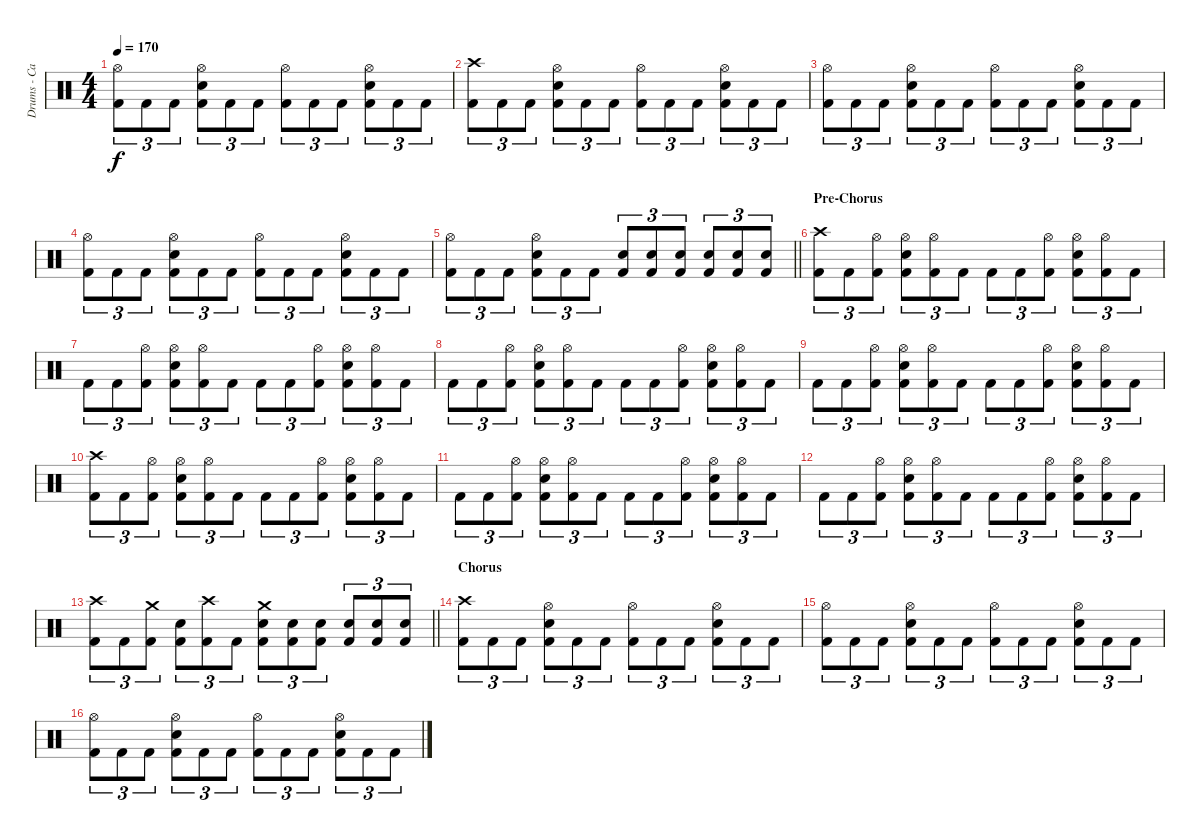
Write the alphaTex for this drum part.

\track ("Drums - Casey Grillo" "Drums - Ca") {instrument percussion}
\staff {score}
\articulation defaults
\ts (4 4)
\tempo 170
\clef neutral
\ks c
("Hi-Hat (open)" "Kick (hit) 2").8{tu (3 2) dy f} "Kick (hit) 2".8{tu (3 2)} "Kick (hit) 2".8{tu (3 2)} ("Hi-Hat (open)" "Snare (hit) 2" "Kick (hit) 2").8{tu (3 2)} "Kick (hit) 2".8{tu (3 2)} "Kick (hit) 2".8{tu (3 2)} ("Hi-Hat (open)" "Kick (hit) 2").8{tu (3 2)} "Kick (hit) 2".8{tu (3 2)} "Kick (hit) 2".8{tu (3 2)} ("Hi-Hat (open)" "Snare (hit) 2" "Kick (hit) 2").8{tu (3 2)} "Kick (hit) 2".8{tu (3 2)} "Kick (hit) 2".8{tu (3 2)} |
("Crash high (hit)" "Kick (hit) 2").8{tu (3 2)} "Kick (hit) 2".8{tu (3 2)} "Kick (hit) 2".8{tu (3 2)} ("Hi-Hat (open)" "Snare (hit) 2" "Kick (hit) 2").8{tu (3 2)} "Kick (hit) 2".8{tu (3 2)} "Kick (hit) 2".8{tu (3 2)} ("Hi-Hat (open)" "Kick (hit) 2").8{tu (3 2)} "Kick (hit) 2".8{tu (3 2)} "Kick (hit) 2".8{tu (3 2)} ("Hi-Hat (open)" "Snare (hit) 2" "Kick (hit) 2").8{tu (3 2)} "Kick (hit) 2".8{tu (3 2)} "Kick (hit) 2".8{tu (3 2)} |
("Hi-Hat (open)" "Kick (hit) 2").8{tu (3 2)} "Kick (hit) 2".8{tu (3 2)} "Kick (hit) 2".8{tu (3 2)} ("Hi-Hat (open)" "Snare (hit) 2" "Kick (hit) 2").8{tu (3 2)} "Kick (hit) 2".8{tu (3 2)} "Kick (hit) 2".8{tu (3 2)} ("Hi-Hat (open)" "Kick (hit) 2").8{tu (3 2)} "Kick (hit) 2".8{tu (3 2)} "Kick (hit) 2".8{tu (3 2)} ("Hi-Hat (open)" "Snare (hit) 2" "Kick (hit) 2").8{tu (3 2)} "Kick (hit) 2".8{tu (3 2)} "Kick (hit) 2".8{tu (3 2)} |
("Hi-Hat (open)" "Kick (hit) 2").8{tu (3 2)} "Kick (hit) 2".8{tu (3 2)} "Kick (hit) 2".8{tu (3 2)} ("Hi-Hat (open)" "Snare (hit) 2" "Kick (hit) 2").8{tu (3 2)} "Kick (hit) 2".8{tu (3 2)} "Kick (hit) 2".8{tu (3 2)} ("Hi-Hat (open)" "Kick (hit) 2").8{tu (3 2)} "Kick (hit) 2".8{tu (3 2)} "Kick (hit) 2".8{tu (3 2)} ("Hi-Hat (open)" "Snare (hit) 2" "Kick (hit) 2").8{tu (3 2)} "Kick (hit) 2".8{tu (3 2)} "Kick (hit) 2".8{tu (3 2)} |
\barLineRight lightlight
("Hi-Hat (open)" "Kick (hit) 2").8{tu (3 2)} "Kick (hit) 2".8{tu (3 2)} "Kick (hit) 2".8{tu (3 2)} ("Hi-Hat (open)" "Snare (hit) 2" "Kick (hit) 2").8{tu (3 2)} "Kick (hit) 2".8{tu (3 2)} "Kick (hit) 2".8{tu (3 2)} ("Snare (hit) 2" "Kick (hit) 2").8{tu (3 2)} ("Snare (hit) 2" "Kick (hit) 2").8{tu (3 2)} ("Snare (hit) 2" "Kick (hit) 2").8{tu (3 2)} ("Snare (hit) 2" "Kick (hit) 2").8{tu (3 2)} ("Snare (hit) 2" "Kick (hit) 2").8{tu (3 2)} ("Snare (hit) 2" "Kick (hit) 2").8{tu (3 2)} |
\section ("" "Pre-Chorus")
("Crash high (hit)" "Kick (hit) 2").8{tu (3 2)} "Kick (hit) 2".8{tu (3 2)} ("Hi-Hat (open)" "Kick (hit) 2").8{tu (3 2)} ("Hi-Hat (open)" "Snare (hit) 2" "Kick (hit) 2").8{tu (3 2)} ("Hi-Hat (open)" "Kick (hit) 2").8{tu (3 2)} "Kick (hit) 2".8{tu (3 2)} "Kick (hit) 2".8{tu (3 2)} "Kick (hit) 2".8{tu (3 2)} ("Hi-Hat (open)" "Kick (hit) 2").8{tu (3 2)} ("Hi-Hat (open)" "Snare (hit) 2" "Kick (hit) 2").8{tu (3 2)} ("Hi-Hat (open)" "Kick (hit) 2").8{tu (3 2)} "Kick (hit) 2".8{tu (3 2)} |
"Kick (hit) 2".8{tu (3 2)} "Kick (hit) 2".8{tu (3 2)} ("Hi-Hat (open)" "Kick (hit) 2").8{tu (3 2)} ("Hi-Hat (open)" "Snare (hit) 2" "Kick (hit) 2").8{tu (3 2)} ("Hi-Hat (open)" "Kick (hit) 2").8{tu (3 2)} "Kick (hit) 2".8{tu (3 2)} "Kick (hit) 2".8{tu (3 2)} "Kick (hit) 2".8{tu (3 2)} ("Hi-Hat (open)" "Kick (hit) 2").8{tu (3 2)} ("Hi-Hat (open)" "Snare (hit) 2" "Kick (hit) 2").8{tu (3 2)} ("Hi-Hat (open)" "Kick (hit) 2").8{tu (3 2)} "Kick (hit) 2".8{tu (3 2)} |
"Kick (hit) 2".8{tu (3 2)} "Kick (hit) 2".8{tu (3 2)} ("Hi-Hat (open)" "Kick (hit) 2").8{tu (3 2)} ("Hi-Hat (open)" "Snare (hit) 2" "Kick (hit) 2").8{tu (3 2)} ("Hi-Hat (open)" "Kick (hit) 2").8{tu (3 2)} "Kick (hit) 2".8{tu (3 2)} "Kick (hit) 2".8{tu (3 2)} "Kick (hit) 2".8{tu (3 2)} ("Hi-Hat (open)" "Kick (hit) 2").8{tu (3 2)} ("Hi-Hat (open)" "Snare (hit) 2" "Kick (hit) 2").8{tu (3 2)} ("Hi-Hat (open)" "Kick (hit) 2").8{tu (3 2)} "Kick (hit) 2".8{tu (3 2)} |
"Kick (hit) 2".8{tu (3 2)} "Kick (hit) 2".8{tu (3 2)} ("Hi-Hat (open)" "Kick (hit) 2").8{tu (3 2)} ("Hi-Hat (open)" "Snare (hit) 2" "Kick (hit) 2").8{tu (3 2)} ("Hi-Hat (open)" "Kick (hit) 2").8{tu (3 2)} "Kick (hit) 2".8{tu (3 2)} "Kick (hit) 2".8{tu (3 2)} "Kick (hit) 2".8{tu (3 2)} ("Hi-Hat (open)" "Kick (hit) 2").8{tu (3 2)} ("Hi-Hat (open)" "Snare (hit) 2" "Kick (hit) 2").8{tu (3 2)} ("Hi-Hat (open)" "Kick (hit) 2").8{tu (3 2)} "Kick (hit) 2".8{tu (3 2)} |
("Crash high (hit)" "Kick (hit) 2").8{tu (3 2)} "Kick (hit) 2".8{tu (3 2)} ("Hi-Hat (open)" "Kick (hit) 2").8{tu (3 2)} ("Hi-Hat (open)" "Snare (hit) 2" "Kick (hit) 2").8{tu (3 2)} ("Hi-Hat (open)" "Kick (hit) 2").8{tu (3 2)} "Kick (hit) 2".8{tu (3 2)} "Kick (hit) 2".8{tu (3 2)} "Kick (hit) 2".8{tu (3 2)} ("Hi-Hat (open)" "Kick (hit) 2").8{tu (3 2)} ("Hi-Hat (open)" "Snare (hit) 2" "Kick (hit) 2").8{tu (3 2)} ("Hi-Hat (open)" "Kick (hit) 2").8{tu (3 2)} "Kick (hit) 2".8{tu (3 2)} |
"Kick (hit) 2".8{tu (3 2)} "Kick (hit) 2".8{tu (3 2)} ("Hi-Hat (open)" "Kick (hit) 2").8{tu (3 2)} ("Hi-Hat (open)" "Snare (hit) 2" "Kick (hit) 2").8{tu (3 2)} ("Hi-Hat (open)" "Kick (hit) 2").8{tu (3 2)} "Kick (hit) 2".8{tu (3 2)} "Kick (hit) 2".8{tu (3 2)} "Kick (hit) 2".8{tu (3 2)} ("Hi-Hat (open)" "Kick (hit) 2").8{tu (3 2)} ("Hi-Hat (open)" "Snare (hit) 2" "Kick (hit) 2").8{tu (3 2)} ("Hi-Hat (open)" "Kick (hit) 2").8{tu (3 2)} "Kick (hit) 2".8{tu (3 2)} |
"Kick (hit) 2".8{tu (3 2)} "Kick (hit) 2".8{tu (3 2)} ("Hi-Hat (open)" "Kick (hit) 2").8{tu (3 2)} ("Hi-Hat (open)" "Snare (hit) 2" "Kick (hit) 2").8{tu (3 2)} ("Hi-Hat (open)" "Kick (hit) 2").8{tu (3 2)} "Kick (hit) 2".8{tu (3 2)} "Kick (hit) 2".8{tu (3 2)} "Kick (hit) 2".8{tu (3 2)} ("Hi-Hat (open)" "Kick (hit) 2").8{tu (3 2)} ("Hi-Hat (open)" "Snare (hit) 2" "Kick (hit) 2").8{tu (3 2)} ("Hi-Hat (open)" "Kick (hit) 2").8{tu (3 2)} "Kick (hit) 2".8{tu (3 2)} |
\barLineRight lightlight
("Crash high (hit)" "Kick (hit) 2").8{tu (3 2)} "Kick (hit) 2".8{tu (3 2)} ("Crash medium (hit)" "Kick (hit) 2").8{tu (3 2)} ("Snare (hit) 2" "Kick (hit) 2").8{tu (3 2)} ("Crash high (hit)" "Kick (hit) 2").8{tu (3 2)} "Kick (hit) 2".8{tu (3 2)} ("Crash medium (hit)" "Snare (hit) 2" "Kick (hit) 2").8{tu (3 2)} ("Snare (hit) 2" "Kick (hit) 2").8{tu (3 2)} ("Snare (hit) 2" "Kick (hit) 2").8{tu (3 2)} ("Snare (hit) 2" "Kick (hit) 2").8{tu (3 2)} ("Snare (hit) 2" "Kick (hit) 2").8{tu (3 2)} ("Snare (hit) 2" "Kick (hit) 2").8{tu (3 2)} |
\section ("" "Chorus")
("Crash high (hit)" "Kick (hit) 2").8{tu (3 2)} "Kick (hit) 2".8{tu (3 2)} "Kick (hit) 2".8{tu (3 2)} ("Hi-Hat (open)" "Snare (hit) 2" "Kick (hit) 2").8{tu (3 2)} "Kick (hit) 2".8{tu (3 2)} "Kick (hit) 2".8{tu (3 2)} ("Hi-Hat (open)" "Kick (hit) 2").8{tu (3 2)} "Kick (hit) 2".8{tu (3 2)} "Kick (hit) 2".8{tu (3 2)} ("Hi-Hat (open)" "Snare (hit) 2" "Kick (hit) 2").8{tu (3 2)} "Kick (hit) 2".8{tu (3 2)} "Kick (hit) 2".8{tu (3 2)} |
("Hi-Hat (open)" "Kick (hit) 2").8{tu (3 2)} "Kick (hit) 2".8{tu (3 2)} "Kick (hit) 2".8{tu (3 2)} ("Hi-Hat (open)" "Snare (hit) 2" "Kick (hit) 2").8{tu (3 2)} "Kick (hit) 2".8{tu (3 2)} "Kick (hit) 2".8{tu (3 2)} ("Hi-Hat (open)" "Kick (hit) 2").8{tu (3 2)} "Kick (hit) 2".8{tu (3 2)} "Kick (hit) 2".8{tu (3 2)} ("Hi-Hat (open)" "Snare (hit) 2" "Kick (hit) 2").8{tu (3 2)} "Kick (hit) 2".8{tu (3 2)} "Kick (hit) 2".8{tu (3 2)} |
("Hi-Hat (open)" "Kick (hit) 2").8{tu (3 2)} "Kick (hit) 2".8{tu (3 2)} "Kick (hit) 2".8{tu (3 2)} ("Hi-Hat (open)" "Snare (hit) 2" "Kick (hit) 2").8{tu (3 2)} "Kick (hit) 2".8{tu (3 2)} "Kick (hit) 2".8{tu (3 2)} ("Hi-Hat (open)" "Kick (hit) 2").8{tu (3 2)} "Kick (hit) 2".8{tu (3 2)} "Kick (hit) 2".8{tu (3 2)} ("Hi-Hat (open)" "Snare (hit) 2" "Kick (hit) 2").8{tu (3 2)} "Kick (hit) 2".8{tu (3 2)} "Kick (hit) 2".8{tu (3 2)}
